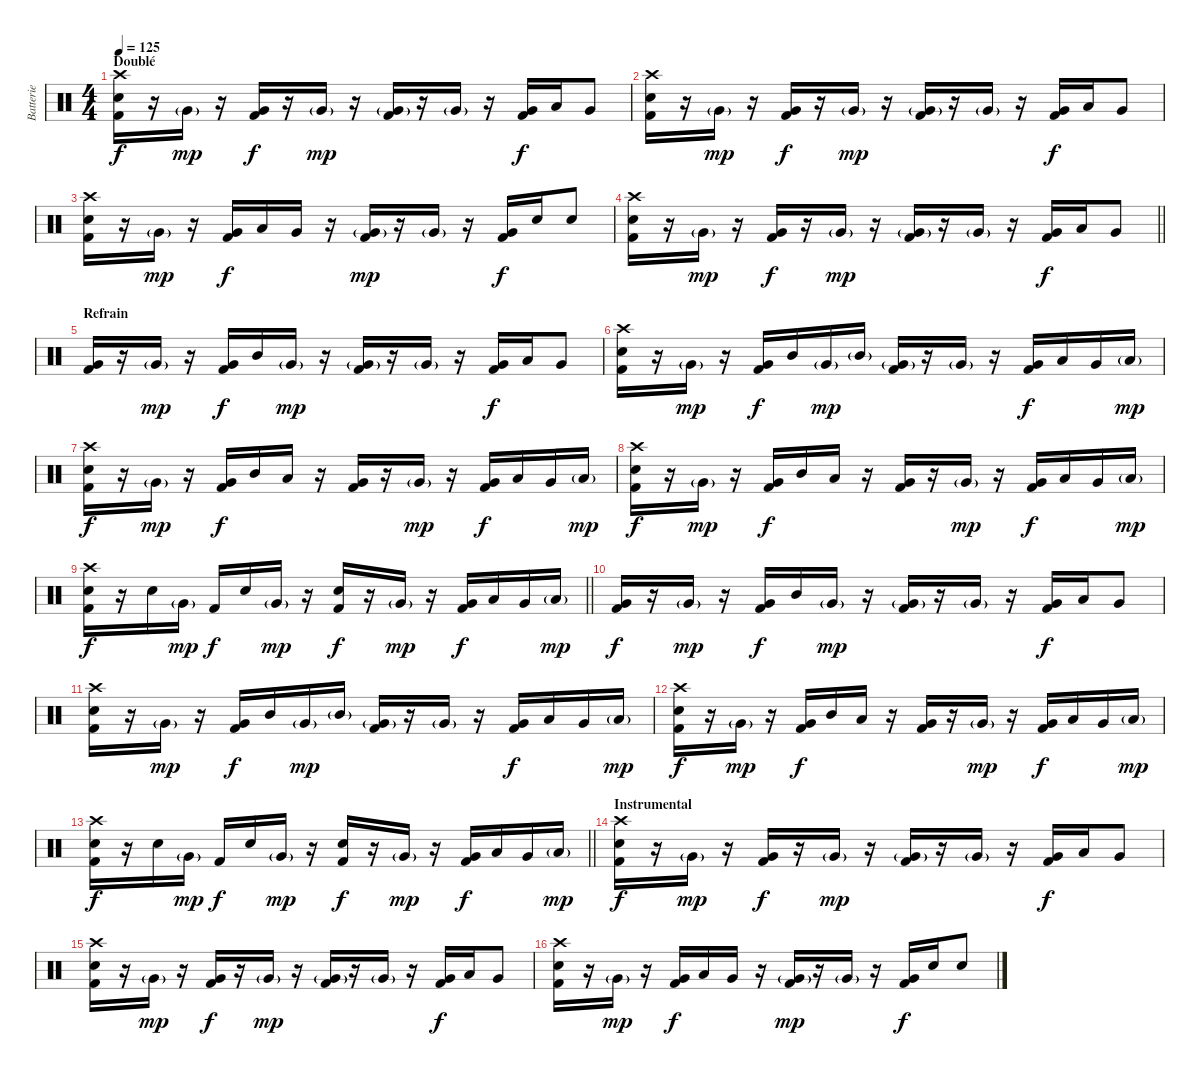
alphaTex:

\track ("Batterie" "Batterie") {instrument percussion}
\staff {score}
\articulation defaults
\ts (4 4)
\section ("" "Doublé")
\tempo 125
\clef neutral
\ks c
("Crash high (hit)" "Electric Snare (hit)" "Kick (hit) 2").16{dy f} r.16 "Very Low Tom (hit)"{g}.16{dy mp} r.16 ("Very Low Tom (hit)" "Kick (hit) 2").16{dy f} r.16 "Very Low Tom (hit)"{g}.16{dy mp} r.16 ("Very Low Tom (hit)"{g} "Kick (hit) 2").16 r.16 "Very Low Tom (hit)"{g}.16 r.16 ("Very Low Tom (hit)" "Kick (hit) 2").16{dy f} "Low Tom (hit)".16 "Very Low Tom (hit)".8 |
("Crash high (hit)" "Electric Snare (hit)" "Kick (hit) 2").16 r.16 "Very Low Tom (hit)"{g}.16{dy mp} r.16 ("Very Low Tom (hit)" "Kick (hit) 2").16{dy f} r.16 "Very Low Tom (hit)"{g}.16{dy mp} r.16 ("Very Low Tom (hit)"{g} "Kick (hit) 2").16 r.16 "Very Low Tom (hit)"{g}.16 r.16 ("Very Low Tom (hit)" "Kick (hit) 2").16{dy f} "Low Tom (hit)".16 "Very Low Tom (hit)".8 |
("Crash high (hit)" "Electric Snare (hit)" "Kick (hit) 2").16 r.16 "Very Low Tom (hit)"{g}.16{dy mp} r.16 ("Very Low Tom (hit)" "Kick (hit) 2").16{dy f} "Low Tom (hit)".16 "Very Low Tom (hit)".16 r.16 ("Very Low Tom (hit)"{g} "Kick (hit) 2").16{dy mp} r.16 "Very Low Tom (hit)"{g}.16 r.16 ("Very Low Tom (hit)" "Kick (hit) 2").16{dy f} "Electric Snare (hit)".16 "Electric Snare (hit)".8 |
\barLineRight lightlight
("Crash high (hit)" "Electric Snare (hit)" "Kick (hit) 2").16 r.16 "Very Low Tom (hit)"{g}.16{dy mp} r.16 ("Very Low Tom (hit)" "Kick (hit) 2").16{dy f} r.16 "Very Low Tom (hit)"{g}.16{dy mp} r.16 ("Very Low Tom (hit)"{g} "Kick (hit) 2").16 r.16 "Very Low Tom (hit)"{g}.16 r.16 ("Very Low Tom (hit)" "Kick (hit) 2").16{dy f} "Low Tom (hit)".16 "Very Low Tom (hit)".8 |
\section ("" "Refrain")
("Very Low Tom (hit)" "Kick (hit) 2").16 r.16 "Very Low Tom (hit)"{g}.16{dy mp} r.16 ("Very Low Tom (hit)" "Kick (hit) 2").16{dy f} "Mid Tom (hit)".16 "Very Low Tom (hit)"{g}.16{dy mp} r.16 ("Very Low Tom (hit)"{g} "Kick (hit) 2").16 r.16 "Very Low Tom (hit)"{g}.16 r.16 ("Very Low Tom (hit)" "Kick (hit) 2").16{dy f} "Low Tom (hit)".16 "Very Low Tom (hit)".8 |
("Crash high (hit)" "Electric Snare (hit)" "Kick (hit) 2").16 r.16 "Very Low Tom (hit)"{g}.16{dy mp} r.16 ("Very Low Tom (hit)" "Kick (hit) 2").16{dy f} "Mid Tom (hit)".16 "Very Low Tom (hit)"{g}.16{dy mp} "Mid Tom (hit)"{g}.16 ("Very Low Tom (hit)"{g} "Kick (hit) 2").16 r.16 "Very Low Tom (hit)"{g}.16 r.16 ("Very Low Tom (hit)" "Kick (hit) 2").16{dy f} "Low Tom (hit)".16 "Very Low Tom (hit)".16 "Low Tom (hit)"{g}.16{dy mp} |
("Crash high (hit)" "Electric Snare (hit)" "Kick (hit) 2").16{dy f} r.16 "Very Low Tom (hit)"{g}.16{dy mp} r.16 ("Very Low Tom (hit)" "Kick (hit) 2").16{dy f} "Mid Tom (hit)".16 "Low Tom (hit)".16 r.16 ("Very Low Tom (hit)" "Kick (hit) 2").16 r.16 "Very Low Tom (hit)"{g}.16{dy mp} r.16 ("Very Low Tom (hit)" "Kick (hit) 2").16{dy f} "Low Tom (hit)".16 "Very Low Tom (hit)".16 "Low Tom (hit)"{g}.16{dy mp} |
("Crash high (hit)" "Electric Snare (hit)" "Kick (hit) 2").16{dy f} r.16 "Very Low Tom (hit)"{g}.16{dy mp} r.16 ("Very Low Tom (hit)" "Kick (hit) 2").16{dy f} "Mid Tom (hit)".16 "Low Tom (hit)".16 r.16 ("Very Low Tom (hit)" "Kick (hit) 2").16 r.16 "Very Low Tom (hit)"{g}.16{dy mp} r.16 ("Very Low Tom (hit)" "Kick (hit) 2").16{dy f} "Low Tom (hit)".16 "Very Low Tom (hit)".16 "Low Tom (hit)"{g}.16{dy mp} |
\barLineRight lightlight
("Crash high (hit)" "Electric Snare (hit)" "Kick (hit) 2").16{dy f} r.16 "Electric Snare (hit)".16 "Very Low Tom (hit)"{g}.16{dy mp} "Kick (hit) 2".16{dy f} "Electric Snare (hit)".16 "Very Low Tom (hit)"{g}.16{dy mp} r.16 ("Electric Snare (hit)" "Kick (hit) 2").16{dy f} r.16 "Very Low Tom (hit)"{g}.16{dy mp} r.16 ("Very Low Tom (hit)" "Kick (hit) 2").16{dy f} "Low Tom (hit)".16 "Very Low Tom (hit)".16 "Low Tom (hit)"{g}.16{dy mp} |
("Very Low Tom (hit)" "Kick (hit) 2").16{dy f} r.16 "Very Low Tom (hit)"{g}.16{dy mp} r.16 ("Very Low Tom (hit)" "Kick (hit) 2").16{dy f} "Mid Tom (hit)".16 "Very Low Tom (hit)"{g}.16{dy mp} r.16 ("Very Low Tom (hit)"{g} "Kick (hit) 2").16 r.16 "Very Low Tom (hit)"{g}.16 r.16 ("Very Low Tom (hit)" "Kick (hit) 2").16{dy f} "Low Tom (hit)".16 "Very Low Tom (hit)".8 |
("Crash high (hit)" "Electric Snare (hit)" "Kick (hit) 2").16 r.16 "Very Low Tom (hit)"{g}.16{dy mp} r.16 ("Very Low Tom (hit)" "Kick (hit) 2").16{dy f} "Mid Tom (hit)".16 "Very Low Tom (hit)"{g}.16{dy mp} "Mid Tom (hit)"{g}.16 ("Very Low Tom (hit)"{g} "Kick (hit) 2").16 r.16 "Very Low Tom (hit)"{g}.16 r.16 ("Very Low Tom (hit)" "Kick (hit) 2").16{dy f} "Low Tom (hit)".16 "Very Low Tom (hit)".16 "Low Tom (hit)"{g}.16{dy mp} |
("Crash high (hit)" "Electric Snare (hit)" "Kick (hit) 2").16{dy f} r.16 "Very Low Tom (hit)"{g}.16{dy mp} r.16 ("Very Low Tom (hit)" "Kick (hit) 2").16{dy f} "Mid Tom (hit)".16 "Low Tom (hit)".16 r.16 ("Very Low Tom (hit)" "Kick (hit) 2").16 r.16 "Very Low Tom (hit)"{g}.16{dy mp} r.16 ("Very Low Tom (hit)" "Kick (hit) 2").16{dy f} "Low Tom (hit)".16 "Very Low Tom (hit)".16 "Low Tom (hit)"{g}.16{dy mp} |
\barLineRight lightlight
("Crash high (hit)" "Electric Snare (hit)" "Kick (hit) 2").16{dy f} r.16 "Electric Snare (hit)".16 "Very Low Tom (hit)"{g}.16{dy mp} "Kick (hit) 2".16{dy f} "Electric Snare (hit)".16 "Very Low Tom (hit)"{g}.16{dy mp} r.16 ("Electric Snare (hit)" "Kick (hit) 2").16{dy f} r.16 "Very Low Tom (hit)"{g}.16{dy mp} r.16 ("Very Low Tom (hit)" "Kick (hit) 2").16{dy f} "Low Tom (hit)".16 "Very Low Tom (hit)".16 "Low Tom (hit)"{g}.16{dy mp} |
\section ("" "Instrumental")
("Crash high (hit)" "Electric Snare (hit)" "Kick (hit) 2").16{dy f} r.16 "Very Low Tom (hit)"{g}.16{dy mp} r.16 ("Very Low Tom (hit)" "Kick (hit) 2").16{dy f} r.16 "Very Low Tom (hit)"{g}.16{dy mp} r.16 ("Very Low Tom (hit)"{g} "Kick (hit) 2").16 r.16 "Very Low Tom (hit)"{g}.16 r.16 ("Very Low Tom (hit)" "Kick (hit) 2").16{dy f} "Low Tom (hit)".16 "Very Low Tom (hit)".8 |
("Crash high (hit)" "Electric Snare (hit)" "Kick (hit) 2").16 r.16 "Very Low Tom (hit)"{g}.16{dy mp} r.16 ("Very Low Tom (hit)" "Kick (hit) 2").16{dy f} r.16 "Very Low Tom (hit)"{g}.16{dy mp} r.16 ("Very Low Tom (hit)"{g} "Kick (hit) 2").16 r.16 "Very Low Tom (hit)"{g}.16 r.16 ("Very Low Tom (hit)" "Kick (hit) 2").16{dy f} "Low Tom (hit)".16 "Very Low Tom (hit)".8 |
("Crash high (hit)" "Electric Snare (hit)" "Kick (hit) 2").16 r.16 "Very Low Tom (hit)"{g}.16{dy mp} r.16 ("Very Low Tom (hit)" "Kick (hit) 2").16{dy f} "Low Tom (hit)".16 "Very Low Tom (hit)".16 r.16 ("Very Low Tom (hit)"{g} "Kick (hit) 2").16{dy mp} r.16 "Very Low Tom (hit)"{g}.16 r.16 ("Very Low Tom (hit)" "Kick (hit) 2").16{dy f} "Electric Snare (hit)".16 "Electric Snare (hit)".8
